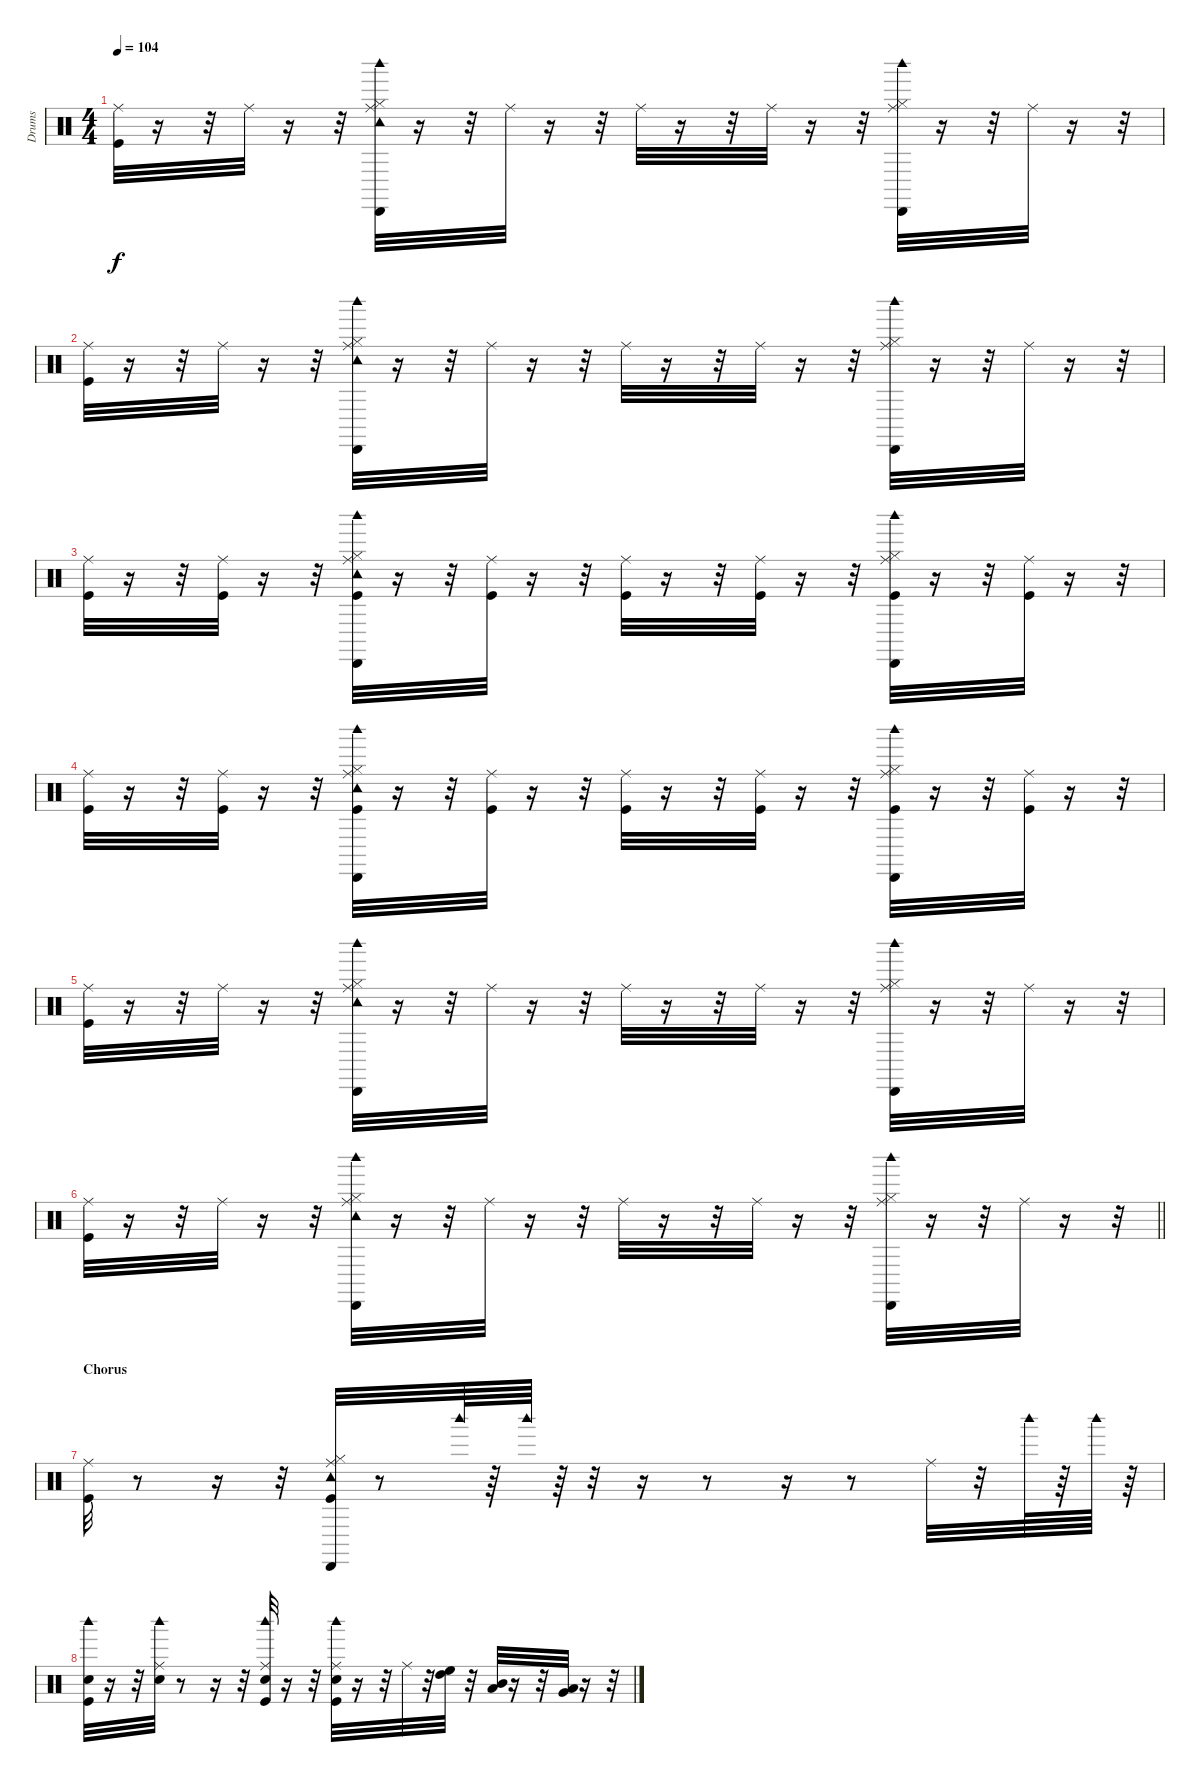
\track ("Drums" "Drums") {instrument percussion}
\staff {score}
\articulation defaults
\ts (4 4)
\tempo 104
\clef neutral
\ks c
("Kick (hit)" "Ride (middle)").32{dy f} r.16 r.32 "Ride (middle)".32 r.16 r.32 ("Hi-Hat (closed)" "Ride (middle)" "Tambourine (hit)" "Cabasa (hit)" "Woodblock high (hit)").32 r.16 r.32 "Ride (middle)".32 r.16 r.32 "Ride (middle)".32 r.16 r.32 "Ride (middle)".32 r.16 r.32 ("Hi-Hat (closed)" "Ride (middle)" "Cabasa (hit)" "Woodblock high (hit)").32 r.16 r.32 "Ride (middle)".32 r.16 r.32 |
("Kick (hit)" "Ride (middle)").32 r.16 r.32 "Ride (middle)".32 r.16 r.32 ("Hi-Hat (closed)" "Ride (middle)" "Tambourine (hit)" "Cabasa (hit)" "Woodblock high (hit)").32 r.16 r.32 "Ride (middle)".32 r.16 r.32 "Ride (middle)".32 r.16 r.32 "Ride (middle)".32 r.16 r.32 ("Hi-Hat (closed)" "Ride (middle)" "Cabasa (hit)" "Woodblock high (hit)").32 r.16 r.32 "Ride (middle)".32 r.16 r.32 |
("Kick (hit)" "Ride (middle)").32 r.16 r.32 ("Kick (hit)" "Ride (middle)").32 r.16 r.32 ("Kick (hit)" "Hi-Hat (closed)" "Ride (middle)" "Tambourine (hit)" "Cabasa (hit)" "Woodblock high (hit)").32 r.16 r.32 ("Kick (hit)" "Ride (middle)").32 r.16 r.32 ("Kick (hit)" "Ride (middle)").32 r.16 r.32 ("Kick (hit)" "Ride (middle)").32 r.16 r.32 ("Kick (hit)" "Hi-Hat (closed)" "Ride (middle)" "Cabasa (hit)" "Woodblock high (hit)").32 r.16 r.32 ("Kick (hit)" "Ride (middle)").32 r.16 r.32 |
("Kick (hit)" "Ride (middle)").32 r.16 r.32 ("Kick (hit)" "Ride (middle)").32 r.16 r.32 ("Kick (hit)" "Hi-Hat (closed)" "Ride (middle)" "Tambourine (hit)" "Cabasa (hit)" "Woodblock high (hit)").32 r.16 r.32 ("Kick (hit)" "Ride (middle)").32 r.16 r.32 ("Kick (hit)" "Ride (middle)").32 r.16 r.32 ("Kick (hit)" "Ride (middle)").32 r.16 r.32 ("Kick (hit)" "Hi-Hat (closed)" "Ride (middle)" "Cabasa (hit)" "Woodblock high (hit)").32 r.16 r.32 ("Kick (hit)" "Ride (middle)").32 r.16 r.32 |
("Kick (hit)" "Ride (middle)").32 r.16 r.32 "Ride (middle)".32 r.16 r.32 ("Hi-Hat (closed)" "Ride (middle)" "Tambourine (hit)" "Cabasa (hit)" "Woodblock high (hit)").32 r.16 r.32 "Ride (middle)".32 r.16 r.32 "Ride (middle)".32 r.16 r.32 "Ride (middle)".32 r.16 r.32 ("Hi-Hat (closed)" "Ride (middle)" "Cabasa (hit)" "Woodblock high (hit)").32 r.16 r.32 "Ride (middle)".32 r.16 r.32 |
\barLineRight lightlight
("Kick (hit)" "Ride (middle)").32 r.16 r.32 "Ride (middle)".32 r.16 r.32 ("Hi-Hat (closed)" "Ride (middle)" "Tambourine (hit)" "Cabasa (hit)" "Woodblock high (hit)").32 r.16 r.32 "Ride (middle)".32 r.16 r.32 "Ride (middle)".32 r.16 r.32 "Ride (middle)".32 r.16 r.32 ("Hi-Hat (closed)" "Ride (middle)" "Cabasa (hit)" "Woodblock high (hit)").32 r.16 r.32 "Ride (middle)".32 r.16 r.32 |
\section ("" "Chorus")
("Kick (hit)" "Ride (middle)").32 r.8 r.16 r.32 ("Kick (hit)" "Hi-Hat (closed)" "Ride (middle)" "Tambourine (hit)" "Cabasa (hit)").32 r.8 "Woodblock high (hit)".64 r.64 "Woodblock high (hit)".64 r.64 r.32 r.16 r.8 r.16 r.8 "Ride (middle)".32 r.32 "Woodblock high (hit)".64 r.64 "Woodblock high (hit)".64 r.64 |
("Kick (hit)" "Snare (hit) 2" "Woodblock high (hit)").32 r.16 r.32 ("Snare (hit) 2" "Ride (middle)" "Woodblock high (hit)").32 r.8 r.16 r.32 ("Kick (hit)" "Snare (hit) 2" "Ride (middle)" "Woodblock high (hit)").32 r.16 r.32 ("Kick (hit)" "Snare (hit) 2" "Ride (middle)" "Woodblock high (hit)").32 r.16 r.32 "Ride (middle)".32 r.32 ("High Tom (hit)" "High Floor Tom (hit)").32 r.32 ("Low Tom (hit)" "Mid Tom (hit)").32 r.16 r.32 ("Low Floor Tom (hit)" "Very Low Tom (hit)").32 r.16 r.32
